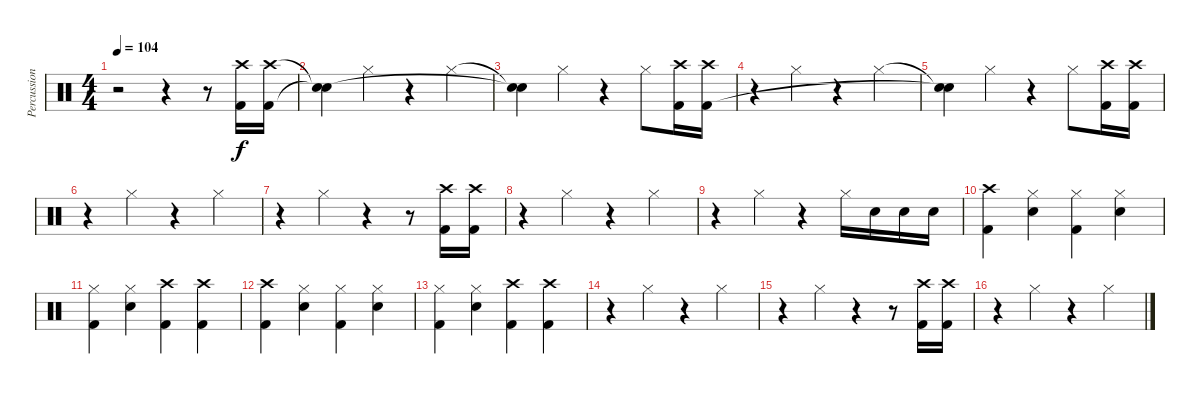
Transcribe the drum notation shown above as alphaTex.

\track ("Percussion" "Percussion") {instrument percussion}
\staff {score}
\articulation defaults
\ts (4 4)
\tempo 104
\clef neutral
\ks c
r.2{dy f} r.4 r.8 ("Crash high (hit)" "Kick (hit) 2").16 ("Crash high (hit)" "Kick (hit) 2").16 |
("Snare (hit)"{t} "Snare (hit)"{t}).4 "Hi-Hat (closed)".4 r.4 "Hi-Hat (closed)".4 |
("Snare (hit)"{t} "Snare (hit)"{t}).4 "Hi-Hat (closed)".4 r.4 "Hi-Hat (closed)".8 ("Crash high (hit)" "Kick (hit) 2").16 ("Crash high (hit)" "Kick (hit) 2").16 |
r.4 "Hi-Hat (closed)".4 r.4 "Hi-Hat (closed)".4 |
("Snare (hit)"{t} "Snare (hit)"{t}).4 "Hi-Hat (closed)".4 r.4 "Hi-Hat (closed)".8 ("Crash high (hit)" "Kick (hit) 2").16 ("Crash high (hit)" "Kick (hit) 2").16 |
r.4 "Hi-Hat (closed)".4 r.4 "Hi-Hat (closed)".4 |
r.4 "Hi-Hat (closed)".4 r.4 r.8 ("Crash high (hit)" "Kick (hit) 2").16 ("Crash high (hit)" "Kick (hit) 2").16 |
r.4 "Hi-Hat (closed)".4 r.4 "Hi-Hat (closed)".4 |
r.4 "Hi-Hat (closed)".4 r.4 "Hi-Hat (closed)".16 "Snare (hit) 2".16 "Snare (hit) 2".16 "Snare (hit) 2".16 |
("Crash high (hit)" "Kick (hit) 2").4 ("Hi-Hat (closed)" "Snare (hit) 2").4 ("Hi-Hat (closed)" "Kick (hit) 2").4 ("Hi-Hat (closed)" "Snare (hit) 2").4 |
("Hi-Hat (closed)" "Kick (hit) 2").4 ("Hi-Hat (closed)" "Snare (hit) 2").4 ("Crash high (hit)" "Kick (hit) 2").4 ("Crash high (hit)" "Kick (hit) 2").4 |
("Crash high (hit)" "Kick (hit) 2").4 ("Hi-Hat (closed)" "Snare (hit) 2").4 ("Hi-Hat (closed)" "Kick (hit) 2").4 ("Hi-Hat (closed)" "Snare (hit) 2").4 |
("Hi-Hat (closed)" "Kick (hit) 2").4 ("Hi-Hat (closed)" "Snare (hit) 2").4 ("Crash high (hit)" "Kick (hit) 2").4 ("Crash high (hit)" "Kick (hit) 2").4 |
r.4 "Hi-Hat (closed)".4 r.4 "Hi-Hat (closed)".4 |
r.4 "Hi-Hat (closed)".4 r.4 r.8 ("Crash high (hit)" "Kick (hit) 2").16 ("Crash high (hit)" "Kick (hit) 2").16 |
r.4 "Hi-Hat (closed)".4 r.4 "Hi-Hat (closed)".4
